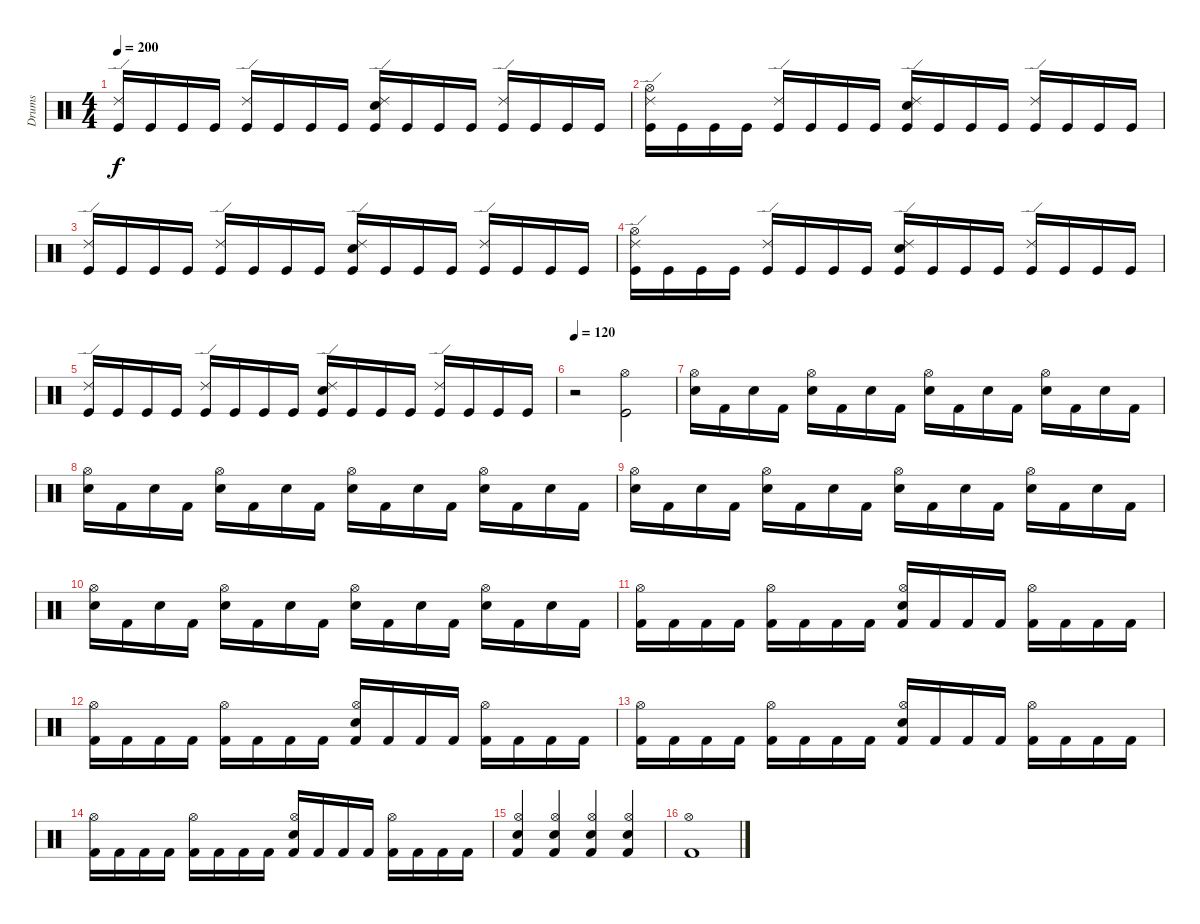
\track ("Drums" "Drums") {instrument percussion}
\staff {score}
\articulation defaults
\ts (4 4)
\tempo 200
\clef neutral
\ks c
("Ride (edge) 2" "Kick (hit)").16{dy f} "Kick (hit)".16 "Kick (hit)".16 "Kick (hit)".16 ("Ride (edge) 2" "Kick (hit)").16 "Kick (hit)".16 "Kick (hit)".16 "Kick (hit)".16 ("Ride (edge) 2" "Snare (hit) 2" "Kick (hit)").16 "Kick (hit)".16 "Kick (hit)".16 "Kick (hit)".16 ("Ride (edge) 2" "Kick (hit)").16 "Kick (hit)".16 "Kick (hit)".16 "Kick (hit)".16 |
("Ride (edge) 2" "Hi-Hat (open)" "Kick (hit)").16 "Kick (hit)".16 "Kick (hit)".16 "Kick (hit)".16 ("Ride (edge) 2" "Kick (hit)").16 "Kick (hit)".16 "Kick (hit)".16 "Kick (hit)".16 ("Ride (edge) 2" "Snare (hit) 2" "Kick (hit)").16 "Kick (hit)".16 "Kick (hit)".16 "Kick (hit)".16 ("Ride (edge) 2" "Kick (hit)").16 "Kick (hit)".16 "Kick (hit)".16 "Kick (hit)".16 |
("Ride (edge) 2" "Kick (hit)").16 "Kick (hit)".16 "Kick (hit)".16 "Kick (hit)".16 ("Ride (edge) 2" "Kick (hit)").16 "Kick (hit)".16 "Kick (hit)".16 "Kick (hit)".16 ("Ride (edge) 2" "Snare (hit) 2" "Kick (hit)").16 "Kick (hit)".16 "Kick (hit)".16 "Kick (hit)".16 ("Ride (edge) 2" "Kick (hit)").16 "Kick (hit)".16 "Kick (hit)".16 "Kick (hit)".16 |
("Ride (edge) 2" "Hi-Hat (open)" "Kick (hit)").16 "Kick (hit)".16 "Kick (hit)".16 "Kick (hit)".16 ("Ride (edge) 2" "Kick (hit)").16 "Kick (hit)".16 "Kick (hit)".16 "Kick (hit)".16 ("Ride (edge) 2" "Snare (hit) 2" "Kick (hit)").16 "Kick (hit)".16 "Kick (hit)".16 "Kick (hit)".16 ("Ride (edge) 2" "Kick (hit)").16 "Kick (hit)".16 "Kick (hit)".16 "Kick (hit)".16 |
("Ride (edge) 2" "Kick (hit)").16 "Kick (hit)".16 "Kick (hit)".16 "Kick (hit)".16 ("Ride (edge) 2" "Kick (hit)").16 "Kick (hit)".16 "Kick (hit)".16 "Kick (hit)".16 ("Ride (edge) 2" "Snare (hit) 2" "Kick (hit)").16 "Kick (hit)".16 "Kick (hit)".16 "Kick (hit)".16 ("Ride (edge) 2" "Kick (hit)").16 "Kick (hit)".16 "Kick (hit)".16 "Kick (hit)".16 |
\tempo 120
r.2 ("Hi-Hat (open)" "Kick (hit)").2 |
("Hi-Hat (open)" "Snare (hit) 2").16 "Kick (hit) 2".16 "Snare (hit) 2".16 "Kick (hit) 2".16 ("Hi-Hat (open)" "Snare (hit) 2").16 "Kick (hit) 2".16 "Snare (hit) 2".16 "Kick (hit) 2".16 ("Hi-Hat (open)" "Snare (hit) 2").16 "Kick (hit) 2".16 "Snare (hit) 2".16 "Kick (hit) 2".16 ("Hi-Hat (open)" "Snare (hit) 2").16 "Kick (hit) 2".16 "Snare (hit) 2".16 "Kick (hit) 2".16 |
("Hi-Hat (open)" "Snare (hit) 2").16 "Kick (hit) 2".16 "Snare (hit) 2".16 "Kick (hit) 2".16 ("Hi-Hat (open)" "Snare (hit) 2").16 "Kick (hit) 2".16 "Snare (hit) 2".16 "Kick (hit) 2".16 ("Hi-Hat (open)" "Snare (hit) 2").16 "Kick (hit) 2".16 "Snare (hit) 2".16 "Kick (hit) 2".16 ("Hi-Hat (open)" "Snare (hit) 2").16 "Kick (hit) 2".16 "Snare (hit) 2".16 "Kick (hit) 2".16 |
("Hi-Hat (open)" "Snare (hit) 2").16 "Kick (hit) 2".16 "Snare (hit) 2".16 "Kick (hit) 2".16 ("Hi-Hat (open)" "Snare (hit) 2").16 "Kick (hit) 2".16 "Snare (hit) 2".16 "Kick (hit) 2".16 ("Hi-Hat (open)" "Snare (hit) 2").16 "Kick (hit) 2".16 "Snare (hit) 2".16 "Kick (hit) 2".16 ("Hi-Hat (open)" "Snare (hit) 2").16 "Kick (hit) 2".16 "Snare (hit) 2".16 "Kick (hit) 2".16 |
("Hi-Hat (open)" "Snare (hit) 2").16 "Kick (hit) 2".16 "Snare (hit) 2".16 "Kick (hit) 2".16 ("Hi-Hat (open)" "Snare (hit) 2").16 "Kick (hit) 2".16 "Snare (hit) 2".16 "Kick (hit) 2".16 ("Hi-Hat (open)" "Snare (hit) 2").16 "Kick (hit) 2".16 "Snare (hit) 2".16 "Kick (hit) 2".16 ("Hi-Hat (open)" "Snare (hit) 2").16 "Kick (hit) 2".16 "Snare (hit) 2".16 "Kick (hit) 2".16 |
("Hi-Hat (open)" "Kick (hit) 2").16 "Kick (hit) 2".16 "Kick (hit) 2".16 "Kick (hit) 2".16 ("Hi-Hat (open)" "Kick (hit) 2").16 "Kick (hit) 2".16 "Kick (hit) 2".16 "Kick (hit) 2".16 ("Hi-Hat (open)" "Snare (hit) 2" "Kick (hit) 2").16 "Kick (hit) 2".16 "Kick (hit) 2".16 "Kick (hit) 2".16 ("Hi-Hat (open)" "Kick (hit) 2").16 "Kick (hit) 2".16 "Kick (hit) 2".16 "Kick (hit) 2".16 |
("Hi-Hat (open)" "Kick (hit) 2").16 "Kick (hit) 2".16 "Kick (hit) 2".16 "Kick (hit) 2".16 ("Hi-Hat (open)" "Kick (hit) 2").16 "Kick (hit) 2".16 "Kick (hit) 2".16 "Kick (hit) 2".16 ("Hi-Hat (open)" "Snare (hit) 2" "Kick (hit) 2").16 "Kick (hit) 2".16 "Kick (hit) 2".16 "Kick (hit) 2".16 ("Hi-Hat (open)" "Kick (hit) 2").16 "Kick (hit) 2".16 "Kick (hit) 2".16 "Kick (hit) 2".16 |
("Hi-Hat (open)" "Kick (hit) 2").16 "Kick (hit) 2".16 "Kick (hit) 2".16 "Kick (hit) 2".16 ("Hi-Hat (open)" "Kick (hit) 2").16 "Kick (hit) 2".16 "Kick (hit) 2".16 "Kick (hit) 2".16 ("Hi-Hat (open)" "Snare (hit) 2" "Kick (hit) 2").16 "Kick (hit) 2".16 "Kick (hit) 2".16 "Kick (hit) 2".16 ("Hi-Hat (open)" "Kick (hit) 2").16 "Kick (hit) 2".16 "Kick (hit) 2".16 "Kick (hit) 2".16 |
("Hi-Hat (open)" "Kick (hit) 2").16 "Kick (hit) 2".16 "Kick (hit) 2".16 "Kick (hit) 2".16 ("Hi-Hat (open)" "Kick (hit) 2").16 "Kick (hit) 2".16 "Kick (hit) 2".16 "Kick (hit) 2".16 ("Hi-Hat (open)" "Snare (hit) 2" "Kick (hit) 2").16 "Kick (hit) 2".16 "Kick (hit) 2".16 "Kick (hit) 2".16 ("Hi-Hat (open)" "Kick (hit) 2").16 "Kick (hit) 2".16 "Kick (hit) 2".16 "Kick (hit) 2".16 |
("Hi-Hat (open)" "Snare (hit) 2" "Kick (hit) 2").4 ("Hi-Hat (open)" "Snare (hit) 2" "Kick (hit) 2").4 ("Hi-Hat (open)" "Snare (hit) 2" "Kick (hit) 2").4 ("Hi-Hat (open)" "Snare (hit) 2" "Kick (hit) 2").4 |
("Hi-Hat (open)" "Kick (hit) 2").1
